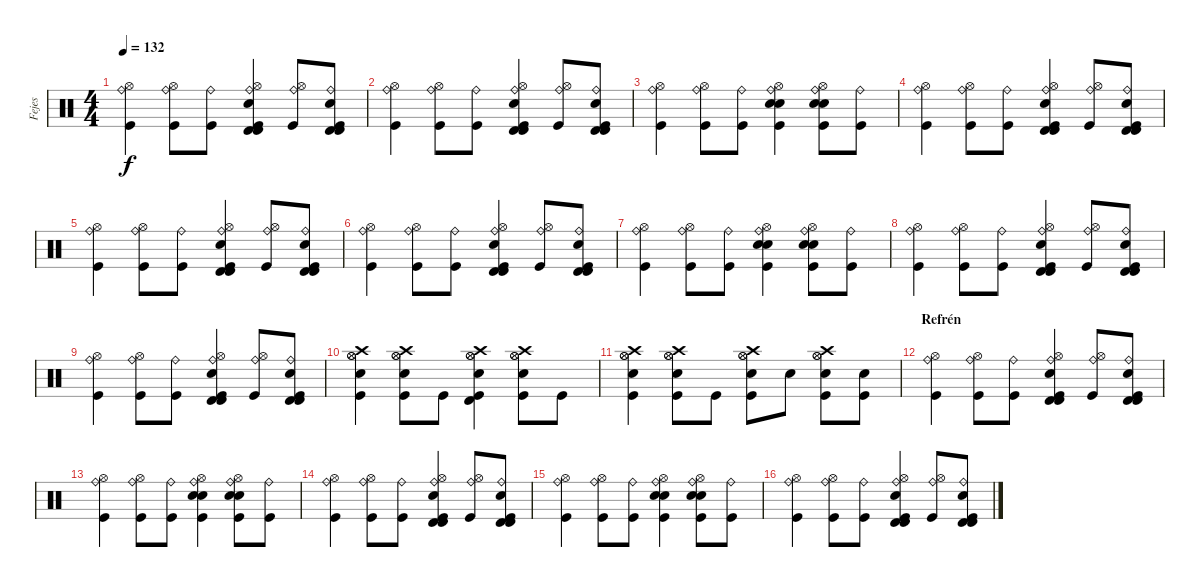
\track ("Fejes" "Fejes") {instrument percussion}
\staff {score}
\articulation defaults
\ts (4 4)
\tempo 132
\clef neutral
\ks c
("Ride (bell)" "Hi-Hat (open)" "Kick (hit)").4{dy f} ("Ride (bell)" "Hi-Hat (open)" "Kick (hit)").8 ("Ride (bell)" "Kick (hit)").8 ("Ride (bell)" "Hi-Hat (open)" "Snare (hit) 2" "Timbale high (hit)" "Timbale high (hit)" "Kick (hit)").4 ("Ride (bell)" "Hi-Hat (open)" "Kick (hit)").8 ("Ride (bell)" "Snare (hit) 2" "Timbale high (hit)" "Timbale high (hit)" "Kick (hit)").8 |
("Ride (bell)" "Hi-Hat (open)" "Kick (hit)").4 ("Ride (bell)" "Hi-Hat (open)" "Kick (hit)").8 ("Ride (bell)" "Kick (hit)").8 ("Ride (bell)" "Hi-Hat (open)" "Snare (hit) 2" "Timbale high (hit)" "Timbale high (hit)" "Kick (hit)").4 ("Ride (bell)" "Hi-Hat (open)" "Kick (hit)").8 ("Ride (bell)" "Snare (hit) 2" "Timbale high (hit)" "Timbale high (hit)" "Kick (hit)").8 |
("Ride (bell)" "Hi-Hat (open)" "Kick (hit)").4 ("Ride (bell)" "Hi-Hat (open)" "Kick (hit)").8 ("Ride (bell)" "Kick (hit)").8 ("Ride (bell)" "Hi-Hat (open)" "Snare (hit) 2" "Snare (hit) 2" "Kick (hit)").4 ("Ride (bell)" "Hi-Hat (open)" "Snare (hit) 2" "Snare (hit) 2" "Kick (hit)").8 ("Ride (bell)" "Kick (hit)").8 |
("Ride (bell)" "Hi-Hat (open)" "Kick (hit)").4 ("Ride (bell)" "Hi-Hat (open)" "Kick (hit)").8 ("Ride (bell)" "Kick (hit)").8 ("Ride (bell)" "Hi-Hat (open)" "Snare (hit) 2" "Timbale high (hit)" "Timbale high (hit)" "Kick (hit)").4 ("Ride (bell)" "Hi-Hat (open)" "Kick (hit)").8 ("Ride (bell)" "Snare (hit) 2" "Timbale high (hit)" "Timbale high (hit)" "Kick (hit)").8 |
("Ride (bell)" "Hi-Hat (open)" "Kick (hit)").4 ("Ride (bell)" "Hi-Hat (open)" "Kick (hit)").8 ("Ride (bell)" "Kick (hit)").8 ("Ride (bell)" "Hi-Hat (open)" "Snare (hit) 2" "Timbale high (hit)" "Timbale high (hit)" "Kick (hit)").4 ("Ride (bell)" "Hi-Hat (open)" "Kick (hit)").8 ("Ride (bell)" "Snare (hit) 2" "Timbale high (hit)" "Timbale high (hit)" "Kick (hit)").8 |
("Ride (bell)" "Hi-Hat (open)" "Kick (hit)").4 ("Ride (bell)" "Hi-Hat (open)" "Kick (hit)").8 ("Ride (bell)" "Kick (hit)").8 ("Ride (bell)" "Hi-Hat (open)" "Snare (hit) 2" "Timbale high (hit)" "Timbale high (hit)" "Kick (hit)").4 ("Ride (bell)" "Hi-Hat (open)" "Kick (hit)").8 ("Ride (bell)" "Snare (hit) 2" "Timbale high (hit)" "Timbale high (hit)" "Kick (hit)").8 |
("Ride (bell)" "Hi-Hat (open)" "Kick (hit)").4 ("Ride (bell)" "Hi-Hat (open)" "Kick (hit)").8 ("Ride (bell)" "Kick (hit)").8 ("Ride (bell)" "Hi-Hat (open)" "Snare (hit) 2" "Snare (hit) 2" "Kick (hit)").4 ("Ride (bell)" "Hi-Hat (open)" "Snare (hit) 2" "Snare (hit) 2" "Kick (hit)").8 ("Ride (bell)" "Kick (hit)").8 |
("Ride (bell)" "Hi-Hat (open)" "Kick (hit)").4 ("Ride (bell)" "Hi-Hat (open)" "Kick (hit)").8 ("Ride (bell)" "Kick (hit)").8 ("Ride (bell)" "Hi-Hat (open)" "Snare (hit) 2" "Timbale high (hit)" "Timbale high (hit)" "Kick (hit)").4 ("Ride (bell)" "Hi-Hat (open)" "Kick (hit)").8 ("Ride (bell)" "Snare (hit) 2" "Timbale high (hit)" "Timbale high (hit)" "Kick (hit)").8 |
("Ride (bell)" "Hi-Hat (open)" "Kick (hit)").4 ("Ride (bell)" "Hi-Hat (open)" "Kick (hit)").8 ("Ride (bell)" "Kick (hit)").8 ("Ride (bell)" "Hi-Hat (open)" "Snare (hit) 2" "Timbale high (hit)" "Timbale high (hit)" "Kick (hit)").4 ("Ride (bell)" "Hi-Hat (open)" "Kick (hit)").8 ("Ride (bell)" "Snare (hit) 2" "Timbale high (hit)" "Timbale high (hit)" "Kick (hit)").8 |
("Hi-Hat (open)" "Hi-Hat (open)" "Snare (hit) 2" "Crash high (hit)" "Kick (hit)").4 ("Hi-Hat (open)" "Hi-Hat (open)" "Snare (hit) 2" "Crash high (hit)" "Kick (hit)").8 "Kick (hit)".8 ("Hi-Hat (open)" "Hi-Hat (open)" "Snare (hit) 2" "Crash high (hit)" "Timbale high (hit)" "Kick (hit)").4 ("Hi-Hat (open)" "Hi-Hat (open)" "Snare (hit) 2" "Crash high (hit)" "Kick (hit)").8 "Kick (hit)".8 |
("Hi-Hat (open)" "Hi-Hat (open)" "Snare (hit) 2" "Crash high (hit)" "Kick (hit)").4 ("Hi-Hat (open)" "Hi-Hat (open)" "Snare (hit) 2" "Crash high (hit)" "Kick (hit)").8 "Kick (hit)".8 ("Hi-Hat (open)" "Hi-Hat (open)" "Snare (hit) 2" "Crash high (hit)" "Kick (hit)").8 "Snare (hit) 2".8 ("Hi-Hat (open)" "Hi-Hat (open)" "Snare (hit) 2" "Crash high (hit)" "Kick (hit)").8 ("Snare (hit) 2" "Kick (hit)").8 |
\section ("" "Refrén")
("Ride (bell)" "Hi-Hat (open)" "Kick (hit)").4 ("Ride (bell)" "Hi-Hat (open)" "Kick (hit)").8 ("Ride (bell)" "Kick (hit)").8 ("Ride (bell)" "Hi-Hat (open)" "Snare (hit) 2" "Timbale high (hit)" "Timbale high (hit)" "Kick (hit)").4 ("Ride (bell)" "Hi-Hat (open)" "Kick (hit)").8 ("Ride (bell)" "Snare (hit) 2" "Timbale high (hit)" "Timbale high (hit)" "Kick (hit)").8 |
("Ride (bell)" "Hi-Hat (open)" "Kick (hit)").4 ("Ride (bell)" "Hi-Hat (open)" "Kick (hit)").8 ("Ride (bell)" "Kick (hit)").8 ("Ride (bell)" "Hi-Hat (open)" "Snare (hit) 2" "Snare (hit) 2" "Kick (hit)").4 ("Ride (bell)" "Hi-Hat (open)" "Snare (hit) 2" "Snare (hit) 2" "Kick (hit)").8 ("Ride (bell)" "Kick (hit)").8 |
("Ride (bell)" "Hi-Hat (open)" "Kick (hit)").4 ("Ride (bell)" "Hi-Hat (open)" "Kick (hit)").8 ("Ride (bell)" "Kick (hit)").8 ("Ride (bell)" "Hi-Hat (open)" "Snare (hit) 2" "Timbale high (hit)" "Timbale high (hit)" "Kick (hit)").4 ("Ride (bell)" "Hi-Hat (open)" "Kick (hit)").8 ("Ride (bell)" "Snare (hit) 2" "Timbale high (hit)" "Timbale high (hit)" "Kick (hit)").8 |
("Ride (bell)" "Hi-Hat (open)" "Kick (hit)").4 ("Ride (bell)" "Hi-Hat (open)" "Kick (hit)").8 ("Ride (bell)" "Kick (hit)").8 ("Ride (bell)" "Hi-Hat (open)" "Snare (hit) 2" "Snare (hit) 2" "Kick (hit)").4 ("Ride (bell)" "Hi-Hat (open)" "Snare (hit) 2" "Snare (hit) 2" "Kick (hit)").8 ("Ride (bell)" "Kick (hit)").8 |
("Ride (bell)" "Hi-Hat (open)" "Kick (hit)").4 ("Ride (bell)" "Hi-Hat (open)" "Kick (hit)").8 ("Ride (bell)" "Kick (hit)").8 ("Ride (bell)" "Hi-Hat (open)" "Snare (hit) 2" "Timbale high (hit)" "Timbale high (hit)" "Kick (hit)").4 ("Ride (bell)" "Hi-Hat (open)" "Kick (hit)").8 ("Ride (bell)" "Snare (hit) 2" "Timbale high (hit)" "Timbale high (hit)" "Kick (hit)").8
